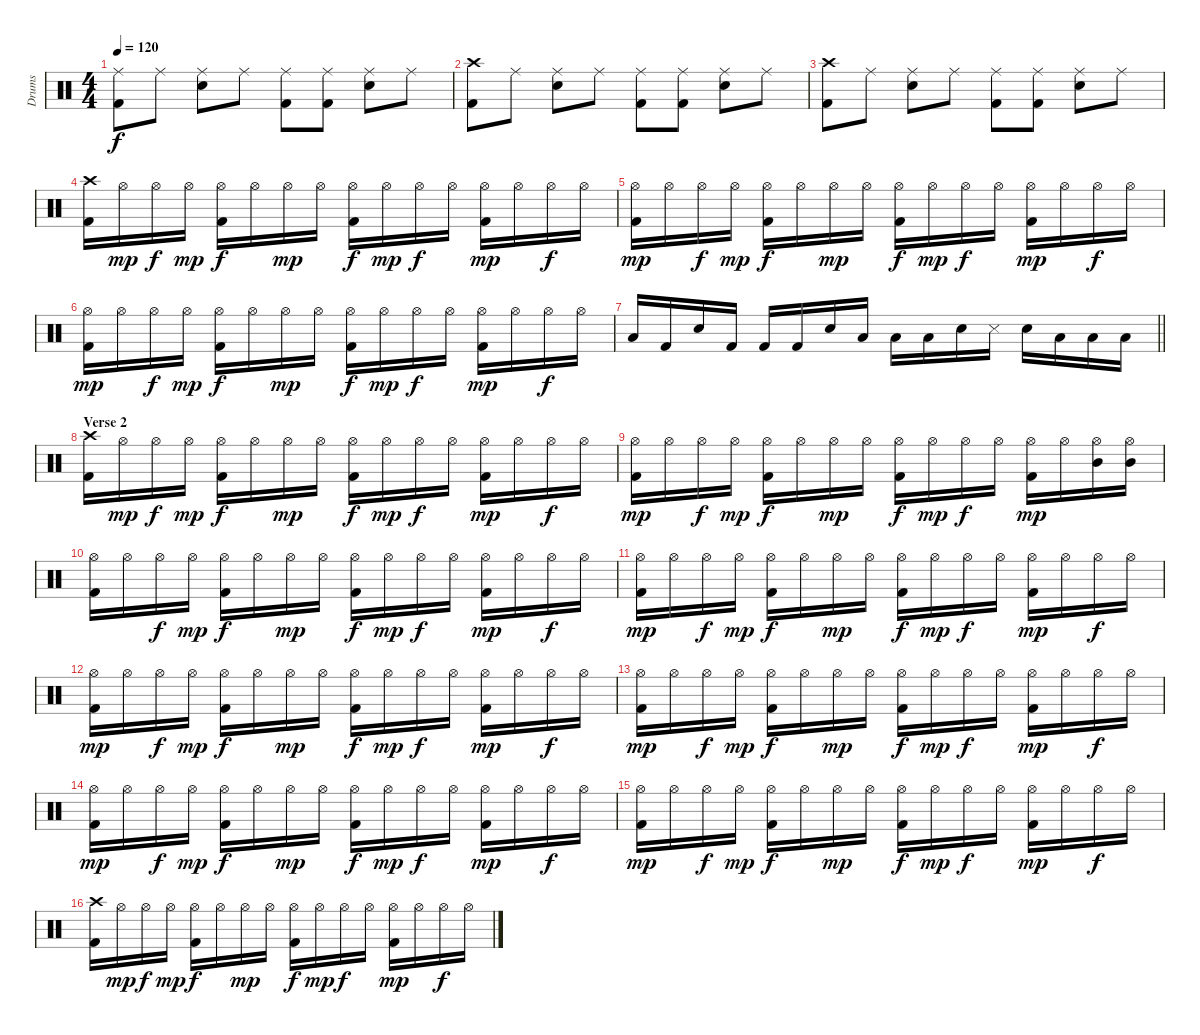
\track ("Drums" "Drums") {instrument percussion}
\staff {score}
\articulation defaults
\ts (4 4)
\tempo 120
\clef neutral
\ks c
("Ride (middle)" "Kick (hit) 2").8{dy f} "Ride (middle)".8 ("Ride (middle)" "Snare (hit) 2").8 "Ride (middle)".8 ("Ride (middle)" "Kick (hit) 2").8 ("Ride (middle)" "Kick (hit) 2").8 ("Ride (middle)" "Snare (hit) 2").8 "Ride (middle)".8 |
("Crash high (hit)" "Kick (hit) 2").8 "Ride (middle)".8 ("Ride (middle)" "Snare (hit) 2").8 "Ride (middle)".8 ("Ride (middle)" "Kick (hit) 2").8 ("Ride (middle)" "Kick (hit) 2").8 ("Ride (middle)" "Snare (hit) 2").8 "Ride (middle)".8 |
("Crash high (hit)" "Kick (hit) 2").8 "Ride (middle)".8 ("Ride (middle)" "Snare (hit) 2").8 "Ride (middle)".8 ("Ride (middle)" "Kick (hit) 2").8 ("Ride (middle)" "Kick (hit) 2").8 ("Ride (middle)" "Snare (hit) 2").8 "Ride (middle)".8 |
("Crash high (hit)" "Kick (hit) 2").16 "Hi-Hat (open)".16{dy mp} "Hi-Hat (open)".16{dy f} "Hi-Hat (open)".16{dy mp} ("Hi-Hat (open)" "Kick (hit) 2").16{dy f} "Hi-Hat (open)".16 "Hi-Hat (open)".16{dy mp} "Hi-Hat (open)".16 ("Hi-Hat (open)" "Kick (hit) 2").16{dy f} "Hi-Hat (open)".16{dy mp} "Hi-Hat (open)".16{dy f} "Hi-Hat (open)".16 ("Hi-Hat (open)" "Kick (hit) 2").16{dy mp} "Hi-Hat (open)".16 "Hi-Hat (open)".16{dy f} "Hi-Hat (open)".16 |
("Hi-Hat (open)" "Kick (hit) 2").16{dy mp} "Hi-Hat (open)".16 "Hi-Hat (open)".16{dy f} "Hi-Hat (open)".16{dy mp} ("Hi-Hat (open)" "Kick (hit) 2").16{dy f} "Hi-Hat (open)".16 "Hi-Hat (open)".16{dy mp} "Hi-Hat (open)".16 ("Hi-Hat (open)" "Kick (hit) 2").16{dy f} "Hi-Hat (open)".16{dy mp} "Hi-Hat (open)".16{dy f} "Hi-Hat (open)".16 ("Hi-Hat (open)" "Kick (hit) 2").16{dy mp} "Hi-Hat (open)".16 "Hi-Hat (open)".16{dy f} "Hi-Hat (open)".16 |
("Hi-Hat (open)" "Kick (hit) 2").16{dy mp} "Hi-Hat (open)".16 "Hi-Hat (open)".16{dy f} "Hi-Hat (open)".16{dy mp} ("Hi-Hat (open)" "Kick (hit) 2").16{dy f} "Hi-Hat (open)".16 "Hi-Hat (open)".16{dy mp} "Hi-Hat (open)".16 ("Hi-Hat (open)" "Kick (hit) 2").16{dy f} "Hi-Hat (open)".16{dy mp} "Hi-Hat (open)".16{dy f} "Hi-Hat (open)".16 ("Hi-Hat (open)" "Kick (hit) 2").16{dy mp} "Hi-Hat (open)".16 "Hi-Hat (open)".16{dy f} "Hi-Hat (open)".16 |
\barLineRight lightlight "Low Tom (hit)".16 "Kick (hit) 2".16 "Snare (hit) 2".16 "Kick (hit) 2".16 "Kick (hit) 2".16 "Kick (hit) 2".16 "Snare (hit) 2".16 "Low Tom (hit)".16 "Low Tom (hit)".16 "Low Tom (hit)".16 "Snare (hit) 2".16 "Snare (side stick) 3".16 "Snare (hit) 2".16 "Low Floor Tom (hit)".16 "Low Floor Tom (hit)".16 "Low Floor Tom (hit)".16
|
\section ("" "Verse 2")
("Crash high (hit)" "Kick (hit) 2").16 "Hi-Hat (open)".16{dy mp} "Hi-Hat (open)".16{dy f} "Hi-Hat (open)".16{dy mp} ("Hi-Hat (open)" "Kick (hit) 2").16{dy f} "Hi-Hat (open)".16 "Hi-Hat (open)".16{dy mp} "Hi-Hat (open)".16 ("Hi-Hat (open)" "Kick (hit) 2").16{dy f} "Hi-Hat (open)".16{dy mp} "Hi-Hat (open)".16{dy f} "Hi-Hat (open)".16 ("Hi-Hat (open)" "Kick (hit) 2").16{dy mp} "Hi-Hat (open)".16 "Hi-Hat (open)".16{dy f} "Hi-Hat (open)".16 |
("Hi-Hat (open)" "Kick (hit) 2").16{dy mp} "Hi-Hat (open)".16 "Hi-Hat (open)".16{dy f} "Hi-Hat (open)".16{dy mp} ("Hi-Hat (open)" "Kick (hit) 2").16{dy f} "Hi-Hat (open)".16 "Hi-Hat (open)".16{dy mp} "Hi-Hat (open)".16 ("Hi-Hat (open)" "Kick (hit) 2").16{dy f} "Hi-Hat (open)".16{dy mp} "Hi-Hat (open)".16{dy f} "Hi-Hat (open)".16 ("Hi-Hat (open)" "Kick (hit) 2").16{dy mp} "Hi-Hat (open)".16 ("Hi-Hat (open)" "Mid Tom (hit)").16 ("Hi-Hat (open)" "Mid Tom (hit)").16 |
("Hi-Hat (open)" "Kick (hit) 2").16 "Hi-Hat (open)".16 "Hi-Hat (open)".16{dy f} "Hi-Hat (open)".16{dy mp} ("Hi-Hat (open)" "Kick (hit) 2").16{dy f} "Hi-Hat (open)".16 "Hi-Hat (open)".16{dy mp} "Hi-Hat (open)".16 ("Hi-Hat (open)" "Kick (hit) 2").16{dy f} "Hi-Hat (open)".16{dy mp} "Hi-Hat (open)".16{dy f} "Hi-Hat (open)".16 ("Hi-Hat (open)" "Kick (hit) 2").16{dy mp} "Hi-Hat (open)".16 "Hi-Hat (open)".16{dy f} "Hi-Hat (open)".16 |
("Hi-Hat (open)" "Kick (hit) 2").16{dy mp} "Hi-Hat (open)".16 "Hi-Hat (open)".16{dy f} "Hi-Hat (open)".16{dy mp} ("Hi-Hat (open)" "Kick (hit) 2").16{dy f} "Hi-Hat (open)".16 "Hi-Hat (open)".16{dy mp} "Hi-Hat (open)".16 ("Hi-Hat (open)" "Kick (hit) 2").16{dy f} "Hi-Hat (open)".16{dy mp} "Hi-Hat (open)".16{dy f} "Hi-Hat (open)".16 ("Hi-Hat (open)" "Kick (hit) 2").16{dy mp} "Hi-Hat (open)".16 "Hi-Hat (open)".16{dy f} "Hi-Hat (open)".16 |
("Hi-Hat (open)" "Kick (hit) 2").16{dy mp} "Hi-Hat (open)".16 "Hi-Hat (open)".16{dy f} "Hi-Hat (open)".16{dy mp} ("Hi-Hat (open)" "Kick (hit) 2").16{dy f} "Hi-Hat (open)".16 "Hi-Hat (open)".16{dy mp} "Hi-Hat (open)".16 ("Hi-Hat (open)" "Kick (hit) 2").16{dy f} "Hi-Hat (open)".16{dy mp} "Hi-Hat (open)".16{dy f} "Hi-Hat (open)".16 ("Hi-Hat (open)" "Kick (hit) 2").16{dy mp} "Hi-Hat (open)".16 "Hi-Hat (open)".16{dy f} "Hi-Hat (open)".16 |
("Hi-Hat (open)" "Kick (hit) 2").16{dy mp} "Hi-Hat (open)".16 "Hi-Hat (open)".16{dy f} "Hi-Hat (open)".16{dy mp} ("Hi-Hat (open)" "Kick (hit) 2").16{dy f} "Hi-Hat (open)".16 "Hi-Hat (open)".16{dy mp} "Hi-Hat (open)".16 ("Hi-Hat (open)" "Kick (hit) 2").16{dy f} "Hi-Hat (open)".16{dy mp} "Hi-Hat (open)".16{dy f} "Hi-Hat (open)".16 ("Hi-Hat (open)" "Kick (hit) 2").16{dy mp} "Hi-Hat (open)".16 "Hi-Hat (open)".16{dy f} "Hi-Hat (open)".16 |
("Hi-Hat (open)" "Kick (hit) 2").16{dy mp} "Hi-Hat (open)".16 "Hi-Hat (open)".16{dy f} "Hi-Hat (open)".16{dy mp} ("Hi-Hat (open)" "Kick (hit) 2").16{dy f} "Hi-Hat (open)".16 "Hi-Hat (open)".16{dy mp} "Hi-Hat (open)".16 ("Hi-Hat (open)" "Kick (hit) 2").16{dy f} "Hi-Hat (open)".16{dy mp} "Hi-Hat (open)".16{dy f} "Hi-Hat (open)".16 ("Hi-Hat (open)" "Kick (hit) 2").16{dy mp} "Hi-Hat (open)".16 "Hi-Hat (open)".16{dy f} "Hi-Hat (open)".16 |
("Hi-Hat (open)" "Kick (hit) 2").16{dy mp} "Hi-Hat (open)".16 "Hi-Hat (open)".16{dy f} "Hi-Hat (open)".16{dy mp} ("Hi-Hat (open)" "Kick (hit) 2").16{dy f} "Hi-Hat (open)".16 "Hi-Hat (open)".16{dy mp} "Hi-Hat (open)".16 ("Hi-Hat (open)" "Kick (hit) 2").16{dy f} "Hi-Hat (open)".16{dy mp} "Hi-Hat (open)".16{dy f} "Hi-Hat (open)".16 ("Hi-Hat (open)" "Kick (hit) 2").16{dy mp} "Hi-Hat (open)".16 "Hi-Hat (open)".16{dy f} "Hi-Hat (open)".16 |
("Crash high (hit)" "Kick (hit) 2").16 "Hi-Hat (open)".16{dy mp} "Hi-Hat (open)".16{dy f} "Hi-Hat (open)".16{dy mp} ("Hi-Hat (open)" "Kick (hit) 2").16{dy f} "Hi-Hat (open)".16 "Hi-Hat (open)".16{dy mp} "Hi-Hat (open)".16 ("Hi-Hat (open)" "Kick (hit) 2").16{dy f} "Hi-Hat (open)".16{dy mp} "Hi-Hat (open)".16{dy f} "Hi-Hat (open)".16 ("Hi-Hat (open)" "Kick (hit) 2").16{dy mp} "Hi-Hat (open)".16 "Hi-Hat (open)".16{dy f} "Hi-Hat (open)".16
